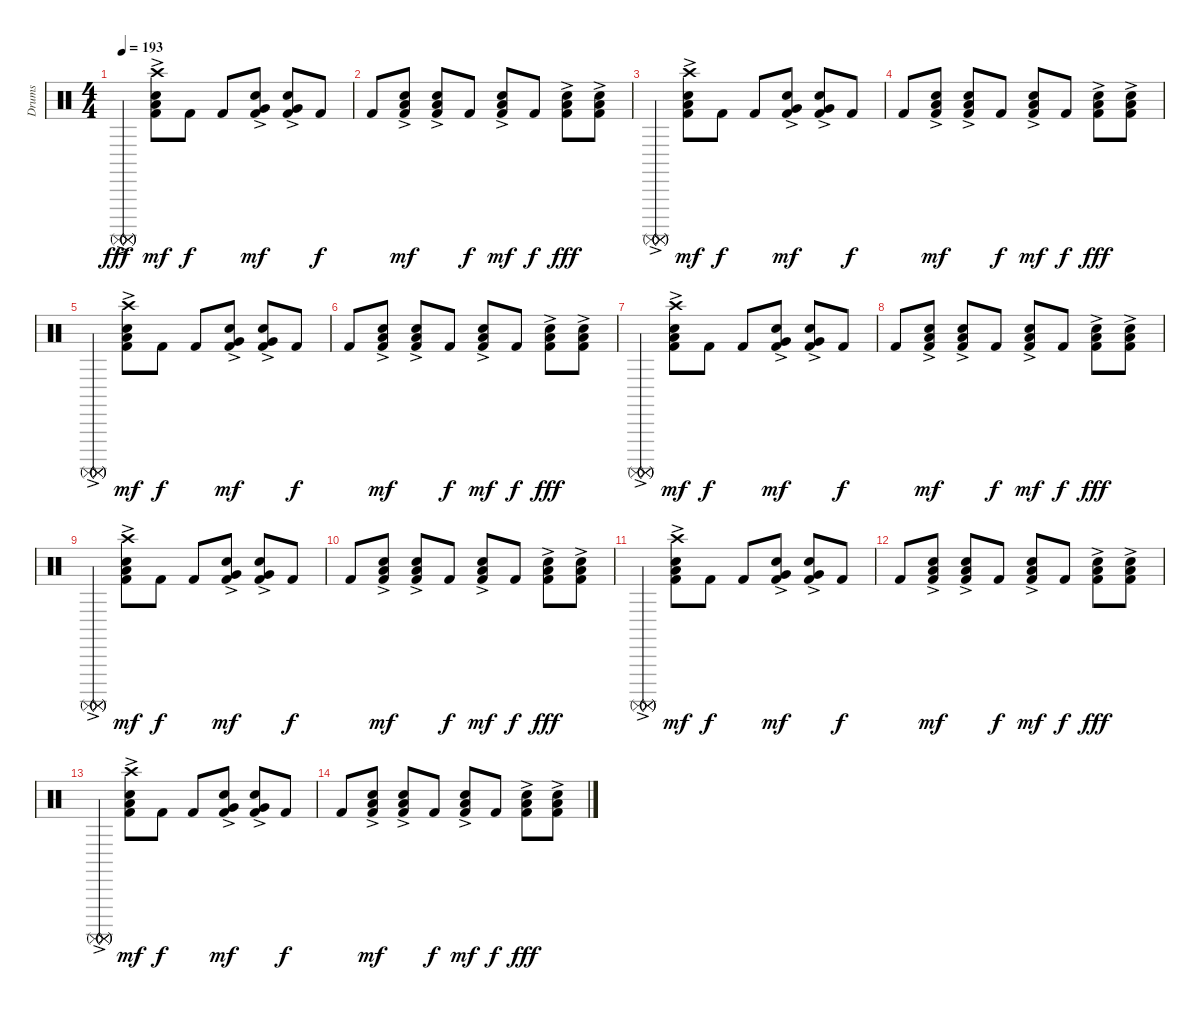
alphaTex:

\track ("Drums" "Drums") {instrument percussion}
\staff {score}
\articulation defaults
\ts (4 4)
\tempo 193
\clef neutral
\ks c
("Surdo (mute)"{ac} "Surdo (mute)"{ac} "Surdo (mute)"{ac} "Surdo (mute)"{ac}).4{dy fff} ("Crash high (hit)" "Low Tom (hit)"{ac} "Snare (hit) 2"{ac} "Kick (hit) 2").8{dy mf} "Kick (hit) 2".8{dy f} "Kick (hit) 2".8 ("Very Low Tom (hit)"{ac} "Snare (hit) 2"{ac} "Kick (hit) 2").8{dy mf} ("Very Low Tom (hit)"{ac} "Snare (hit) 2"{ac} "Kick (hit) 2").8 "Kick (hit) 2".8{dy f} |
"Kick (hit) 2".8 ("Low Floor Tom (hit)"{ac} "Snare (hit) 2"{ac} "Kick (hit) 2").8{dy mf} ("Low Floor Tom (hit)"{ac} "Snare (hit) 2"{ac} "Kick (hit) 2").8 "Kick (hit) 2".8{dy f} ("Low Floor Tom (hit)"{ac} "Snare (hit) 2"{ac} "Kick (hit) 2").8{dy mf} "Kick (hit) 2".8{dy f} ("Low Floor Tom (hit)"{ac} "Snare (hit) 2"{ac} "Kick (hit) 2"{ac}).8{dy fff} ("Low Floor Tom (hit)"{ac} "Snare (hit) 2"{ac} "Kick (hit) 2"{ac}).8 |
("Surdo (mute)"{ac} "Surdo (mute)"{ac} "Surdo (mute)"{ac} "Surdo (mute)"{ac}).4{volume 7} ("Crash high (hit)" "Low Tom (hit)"{ac} "Snare (hit) 2"{ac} "Kick (hit) 2").8{dy mf} "Kick (hit) 2".8{dy f} "Kick (hit) 2".8 ("Very Low Tom (hit)"{ac} "Snare (hit) 2"{ac} "Kick (hit) 2").8{dy mf} ("Very Low Tom (hit)"{ac} "Snare (hit) 2"{ac} "Kick (hit) 2").8 "Kick (hit) 2".8{dy f} |
"Kick (hit) 2".8 ("Low Floor Tom (hit)"{ac} "Snare (hit) 2"{ac} "Kick (hit) 2").8{dy mf} ("Low Floor Tom (hit)"{ac} "Snare (hit) 2"{ac} "Kick (hit) 2").8 "Kick (hit) 2".8{dy f} ("Low Floor Tom (hit)"{ac} "Snare (hit) 2"{ac} "Kick (hit) 2").8{dy mf} "Kick (hit) 2".8{dy f} ("Low Floor Tom (hit)"{ac} "Snare (hit) 2"{ac} "Kick (hit) 2"{ac}).8{dy fff} ("Low Floor Tom (hit)"{ac} "Snare (hit) 2"{ac} "Kick (hit) 2"{ac}).8 |
("Surdo (mute)"{ac} "Surdo (mute)"{ac} "Surdo (mute)"{ac} "Surdo (mute)"{ac}).4 ("Crash high (hit)" "Low Tom (hit)"{ac} "Snare (hit) 2"{ac} "Kick (hit) 2").8{dy mf} "Kick (hit) 2".8{dy f} "Kick (hit) 2".8 ("Very Low Tom (hit)"{ac} "Snare (hit) 2"{ac} "Kick (hit) 2").8{dy mf} ("Very Low Tom (hit)"{ac} "Snare (hit) 2"{ac} "Kick (hit) 2").8 "Kick (hit) 2".8{dy f} |
"Kick (hit) 2".8 ("Low Floor Tom (hit)"{ac} "Snare (hit) 2"{ac} "Kick (hit) 2").8{dy mf} ("Low Floor Tom (hit)"{ac} "Snare (hit) 2"{ac} "Kick (hit) 2").8 "Kick (hit) 2".8{dy f} ("Low Floor Tom (hit)"{ac} "Snare (hit) 2"{ac} "Kick (hit) 2").8{dy mf} "Kick (hit) 2".8{dy f} ("Low Floor Tom (hit)"{ac} "Snare (hit) 2"{ac} "Kick (hit) 2"{ac}).8{dy fff} ("Low Floor Tom (hit)"{ac} "Snare (hit) 2"{ac} "Kick (hit) 2"{ac}).8 |
("Surdo (mute)"{ac} "Surdo (mute)"{ac} "Surdo (mute)"{ac} "Surdo (mute)"{ac}).4{volume 4} ("Crash high (hit)" "Low Tom (hit)"{ac} "Snare (hit) 2"{ac} "Kick (hit) 2").8{dy mf} "Kick (hit) 2".8{dy f} "Kick (hit) 2".8 ("Very Low Tom (hit)"{ac} "Snare (hit) 2"{ac} "Kick (hit) 2").8{dy mf} ("Very Low Tom (hit)"{ac} "Snare (hit) 2"{ac} "Kick (hit) 2").8 "Kick (hit) 2".8{dy f} |
"Kick (hit) 2".8 ("Low Floor Tom (hit)"{ac} "Snare (hit) 2"{ac} "Kick (hit) 2").8{dy mf} ("Low Floor Tom (hit)"{ac} "Snare (hit) 2"{ac} "Kick (hit) 2").8 "Kick (hit) 2".8{dy f} ("Low Floor Tom (hit)"{ac} "Snare (hit) 2"{ac} "Kick (hit) 2").8{dy mf} "Kick (hit) 2".8{dy f} ("Low Floor Tom (hit)"{ac} "Snare (hit) 2"{ac} "Kick (hit) 2"{ac}).8{dy fff} ("Low Floor Tom (hit)"{ac} "Snare (hit) 2"{ac} "Kick (hit) 2"{ac}).8 |
("Surdo (mute)"{ac} "Surdo (mute)"{ac} "Surdo (mute)"{ac} "Surdo (mute)"{ac}).4 ("Crash high (hit)" "Low Tom (hit)"{ac} "Snare (hit) 2"{ac} "Kick (hit) 2").8{dy mf} "Kick (hit) 2".8{dy f} "Kick (hit) 2".8 ("Very Low Tom (hit)"{ac} "Snare (hit) 2"{ac} "Kick (hit) 2").8{dy mf} ("Very Low Tom (hit)"{ac} "Snare (hit) 2"{ac} "Kick (hit) 2").8 "Kick (hit) 2".8{dy f} |
"Kick (hit) 2".8 ("Low Floor Tom (hit)"{ac} "Snare (hit) 2"{ac} "Kick (hit) 2").8{dy mf} ("Low Floor Tom (hit)"{ac} "Snare (hit) 2"{ac} "Kick (hit) 2").8 "Kick (hit) 2".8{dy f} ("Low Floor Tom (hit)"{ac} "Snare (hit) 2"{ac} "Kick (hit) 2").8{dy mf} "Kick (hit) 2".8{dy f} ("Low Floor Tom (hit)"{ac} "Snare (hit) 2"{ac} "Kick (hit) 2"{ac}).8{dy fff} ("Low Floor Tom (hit)"{ac} "Snare (hit) 2"{ac} "Kick (hit) 2"{ac}).8 |
("Surdo (mute)"{ac} "Surdo (mute)"{ac} "Surdo (mute)"{ac} "Surdo (mute)"{ac}).4{volume 1} ("Crash high (hit)" "Low Tom (hit)"{ac} "Snare (hit) 2"{ac} "Kick (hit) 2").8{dy mf} "Kick (hit) 2".8{dy f} "Kick (hit) 2".8 ("Very Low Tom (hit)"{ac} "Snare (hit) 2"{ac} "Kick (hit) 2").8{dy mf} ("Very Low Tom (hit)"{ac} "Snare (hit) 2"{ac} "Kick (hit) 2").8 "Kick (hit) 2".8{dy f} |
"Kick (hit) 2".8 ("Low Floor Tom (hit)"{ac} "Snare (hit) 2"{ac} "Kick (hit) 2").8{dy mf} ("Low Floor Tom (hit)"{ac} "Snare (hit) 2"{ac} "Kick (hit) 2").8 "Kick (hit) 2".8{dy f} ("Low Floor Tom (hit)"{ac} "Snare (hit) 2"{ac} "Kick (hit) 2").8{dy mf} "Kick (hit) 2".8{dy f} ("Low Floor Tom (hit)"{ac} "Snare (hit) 2"{ac} "Kick (hit) 2"{ac}).8{dy fff} ("Low Floor Tom (hit)"{ac} "Snare (hit) 2"{ac} "Kick (hit) 2"{ac}).8 |
("Surdo (mute)"{ac} "Surdo (mute)"{ac} "Surdo (mute)"{ac} "Surdo (mute)"{ac}).4 ("Crash high (hit)" "Low Tom (hit)"{ac} "Snare (hit) 2"{ac} "Kick (hit) 2").8{dy mf} "Kick (hit) 2".8{dy f} "Kick (hit) 2".8 ("Very Low Tom (hit)"{ac} "Snare (hit) 2"{ac} "Kick (hit) 2").8{dy mf} ("Very Low Tom (hit)"{ac} "Snare (hit) 2"{ac} "Kick (hit) 2").8 "Kick (hit) 2".8{dy f} |
"Kick (hit) 2".8 ("Low Floor Tom (hit)"{ac} "Snare (hit) 2"{ac} "Kick (hit) 2").8{dy mf} ("Low Floor Tom (hit)"{ac} "Snare (hit) 2"{ac} "Kick (hit) 2").8 "Kick (hit) 2".8{dy f} ("Low Floor Tom (hit)"{ac} "Snare (hit) 2"{ac} "Kick (hit) 2").8{dy mf} "Kick (hit) 2".8{dy f} ("Low Floor Tom (hit)"{ac} "Snare (hit) 2"{ac} "Kick (hit) 2"{ac}).8{dy fff} ("Low Floor Tom (hit)"{ac} "Snare (hit) 2"{ac} "Kick (hit) 2"{ac}).8
